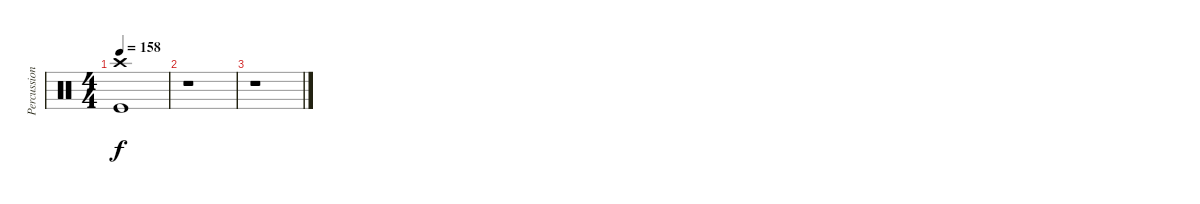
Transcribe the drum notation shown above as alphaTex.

\track ("Percussion" "Percussion") {instrument percussion}
\staff {score}
\articulation defaults
\ts (4 4)
\tempo 158
\clef neutral
\ks c
("Crash high (hit)" "Kick (hit)").1{dy f} |
r.1 |
r.1
